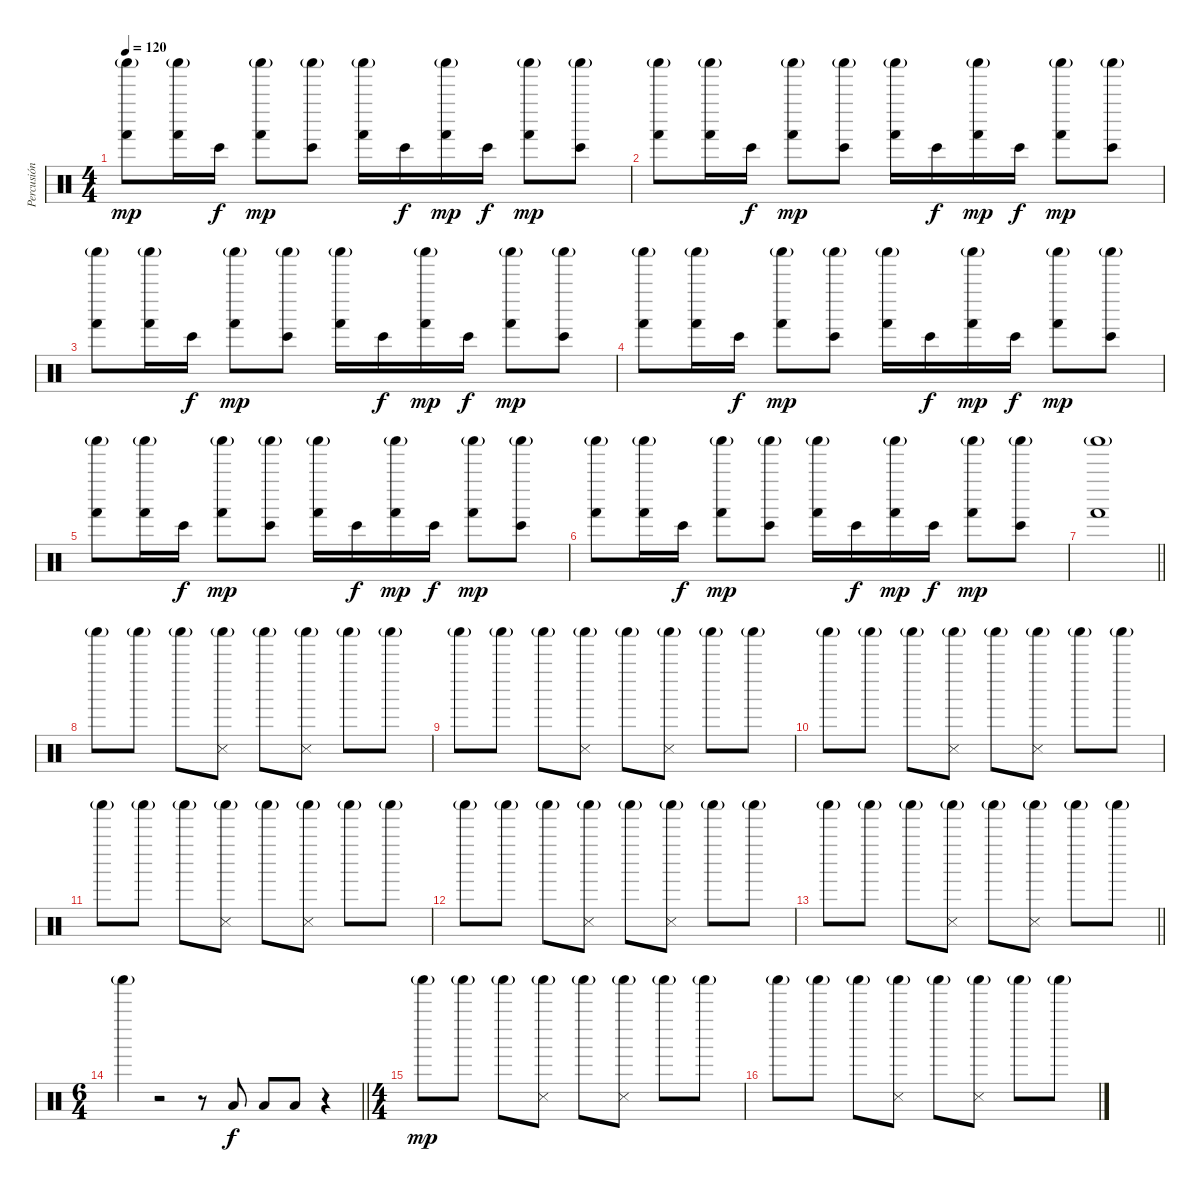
\track ("Percusión" "Percusión") {instrument percussion}
\staff {score}
\articulation defaults
\ts (4 4)
\tempo 120
\clef neutral
\ks c
("Hand (hit)" "Shaker (hit)"{g}).8{dy mp} ("Hand (hit)" "Shaker (hit)"{g}).16 "Bongo High (hit)".16{dy f} ("Hand (hit)" "Shaker (hit)"{g}).8{dy mp} ("Bongo High (hit)" "Shaker (hit)"{g}).8 ("Hand (hit)" "Shaker (hit)"{g}).16 "Bongo High (hit)".16{dy f} ("Hand (hit)" "Shaker (hit)"{g}).16{dy mp} "Bongo High (hit)".16{dy f} ("Hand (hit)" "Shaker (hit)"{g}).8{dy mp} ("Bongo High (hit)" "Shaker (hit)"{g}).8 |
("Hand (hit)" "Shaker (hit)"{g}).8 ("Hand (hit)" "Shaker (hit)"{g}).16 "Bongo High (hit)".16{dy f} ("Hand (hit)" "Shaker (hit)"{g}).8{dy mp} ("Bongo High (hit)" "Shaker (hit)"{g}).8 ("Hand (hit)" "Shaker (hit)"{g}).16 "Bongo High (hit)".16{dy f} ("Hand (hit)" "Shaker (hit)"{g}).16{dy mp} "Bongo High (hit)".16{dy f} ("Hand (hit)" "Shaker (hit)"{g}).8{dy mp} ("Bongo High (hit)" "Shaker (hit)"{g}).8 |
("Hand (hit)" "Shaker (hit)"{g}).8 ("Hand (hit)" "Shaker (hit)"{g}).16 "Bongo High (hit)".16{dy f} ("Hand (hit)" "Shaker (hit)"{g}).8{dy mp} ("Bongo High (hit)" "Shaker (hit)"{g}).8 ("Hand (hit)" "Shaker (hit)"{g}).16 "Bongo High (hit)".16{dy f} ("Hand (hit)" "Shaker (hit)"{g}).16{dy mp} "Bongo High (hit)".16{dy f} ("Hand (hit)" "Shaker (hit)"{g}).8{dy mp} ("Bongo High (hit)" "Shaker (hit)"{g}).8 |
("Hand (hit)" "Shaker (hit)"{g}).8 ("Hand (hit)" "Shaker (hit)"{g}).16 "Bongo High (hit)".16{dy f} ("Hand (hit)" "Shaker (hit)"{g}).8{dy mp} ("Bongo High (hit)" "Shaker (hit)"{g}).8 ("Hand (hit)" "Shaker (hit)"{g}).16 "Bongo High (hit)".16{dy f} ("Hand (hit)" "Shaker (hit)"{g}).16{dy mp} "Bongo High (hit)".16{dy f} ("Hand (hit)" "Shaker (hit)"{g}).8{dy mp} ("Bongo High (hit)" "Shaker (hit)"{g}).8 |
("Hand (hit)" "Shaker (hit)"{g}).8 ("Hand (hit)" "Shaker (hit)"{g}).16 "Bongo High (hit)".16{dy f} ("Hand (hit)" "Shaker (hit)"{g}).8{dy mp} ("Bongo High (hit)" "Shaker (hit)"{g}).8 ("Hand (hit)" "Shaker (hit)"{g}).16 "Bongo High (hit)".16{dy f} ("Hand (hit)" "Shaker (hit)"{g}).16{dy mp} "Bongo High (hit)".16{dy f} ("Hand (hit)" "Shaker (hit)"{g}).8{dy mp} ("Bongo High (hit)" "Shaker (hit)"{g}).8 |
("Hand (hit)" "Shaker (hit)"{g}).8 ("Hand (hit)" "Shaker (hit)"{g}).16 "Bongo High (hit)".16{dy f} ("Hand (hit)" "Shaker (hit)"{g}).8{dy mp} ("Bongo High (hit)" "Shaker (hit)"{g}).8 ("Hand (hit)" "Shaker (hit)"{g}).16 "Bongo High (hit)".16{dy f} ("Hand (hit)" "Shaker (hit)"{g}).16{dy mp} "Bongo High (hit)".16{dy f} ("Hand (hit)" "Shaker (hit)"{g}).8{dy mp} ("Bongo High (hit)" "Shaker (hit)"{g}).8 |
\barLineRight lightlight
("Hand (hit)" "Shaker (hit)"{g}).1 |
\section ("" "")
"Shaker (hit)"{g}.8 "Shaker (hit)"{g}.8 "Shaker (hit)"{g}.8 ("Snare (side stick) 3" "Shaker (hit)"{g}).8 "Shaker (hit)"{g}.8 ("Snare (side stick) 3" "Shaker (hit)"{g}).8 "Shaker (hit)"{g}.8 "Shaker (hit)"{g}.8 |
"Shaker (hit)"{g}.8 "Shaker (hit)"{g}.8 "Shaker (hit)"{g}.8 ("Snare (side stick) 3" "Shaker (hit)"{g}).8 "Shaker (hit)"{g}.8 ("Snare (side stick) 3" "Shaker (hit)"{g}).8 "Shaker (hit)"{g}.8 "Shaker (hit)"{g}.8 |
"Shaker (hit)"{g}.8 "Shaker (hit)"{g}.8 "Shaker (hit)"{g}.8 ("Snare (side stick) 3" "Shaker (hit)"{g}).8 "Shaker (hit)"{g}.8 ("Snare (side stick) 3" "Shaker (hit)"{g}).8 "Shaker (hit)"{g}.8 "Shaker (hit)"{g}.8 |
"Shaker (hit)"{g}.8 "Shaker (hit)"{g}.8 "Shaker (hit)"{g}.8 ("Snare (side stick) 3" "Shaker (hit)"{g}).8 "Shaker (hit)"{g}.8 ("Snare (side stick) 3" "Shaker (hit)"{g}).8 "Shaker (hit)"{g}.8 "Shaker (hit)"{g}.8 |
"Shaker (hit)"{g}.8 "Shaker (hit)"{g}.8 "Shaker (hit)"{g}.8 ("Snare (side stick) 3" "Shaker (hit)"{g}).8 "Shaker (hit)"{g}.8 ("Snare (side stick) 3" "Shaker (hit)"{g}).8 "Shaker (hit)"{g}.8 "Shaker (hit)"{g}.8 |
\barLineRight lightlight "Shaker (hit)"{g}.8 "Shaker (hit)"{g}.8 "Shaker (hit)"{g}.8
("Snare (side stick) 3" "Shaker (hit)"{g}).8 "Shaker (hit)"{g}.8 ("Snare (side stick) 3" "Shaker (hit)"{g}).8 "Shaker (hit)"{g}.8 "Shaker (hit)"{g}.8 |
\ts (6 4)
\section ("" "")
\barLineRight lightlight "Shaker (hit)"{g}.4
r.2 r.8 "Low Tom (hit)".8{dy f} "Low Tom (hit)".8 "Low Tom (hit)".8 r.4 |
\ts (4 4)
"Shaker (hit)"{g}.8{dy mp} "Shaker (hit)"{g}.8 "Shaker (hit)"{g}.8 ("Snare (side stick) 3" "Shaker (hit)"{g}).8 "Shaker (hit)"{g}.8 ("Snare (side stick) 3" "Shaker (hit)"{g}).8 "Shaker (hit)"{g}.8 "Shaker (hit)"{g}.8 |
"Shaker (hit)"{g}.8 "Shaker (hit)"{g}.8 "Shaker (hit)"{g}.8 ("Snare (side stick) 3" "Shaker (hit)"{g}).8 "Shaker (hit)"{g}.8 ("Snare (side stick) 3" "Shaker (hit)"{g}).8 "Shaker (hit)"{g}.8 "Shaker (hit)"{g}.8
